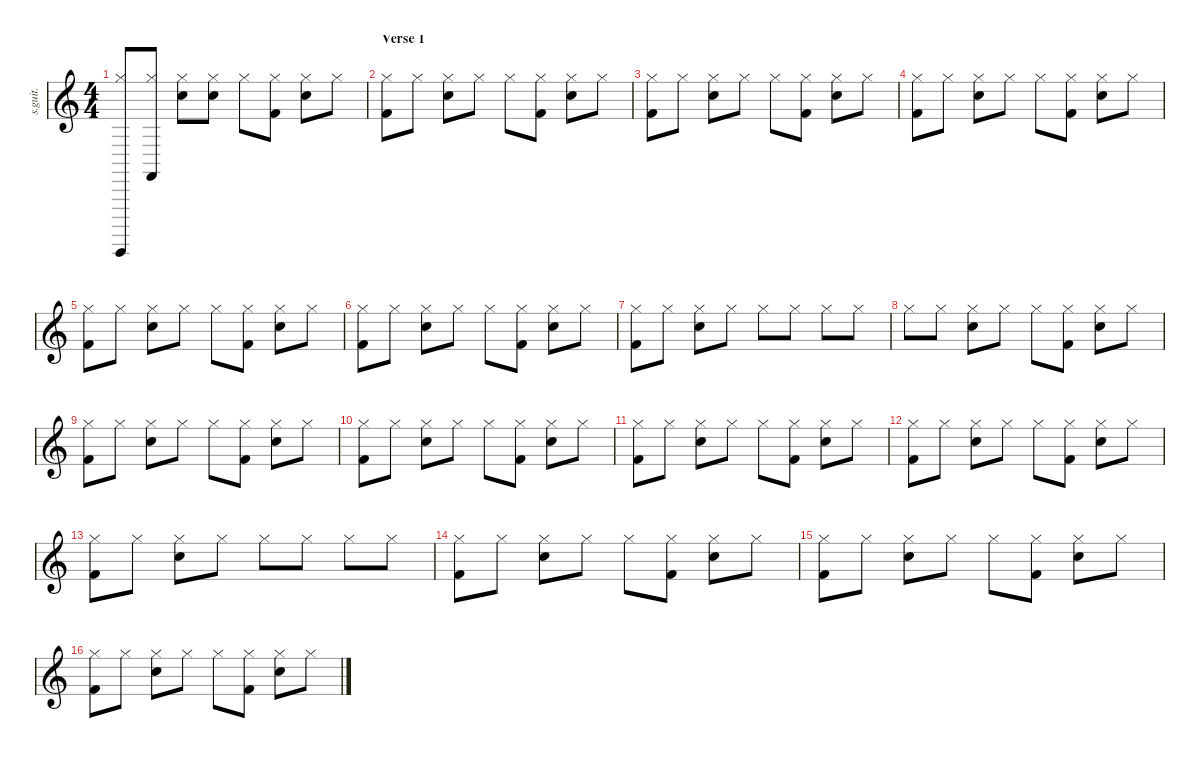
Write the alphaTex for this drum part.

\defaultSystemsLayout 4
\hideDynamics
\bracketExtendMode nobrackets
\track ("Drums (Russel Hobbs)" "s.guit.") {instrument percussion}
\staff {score}
\articulation defaults
\ts (4 4)
\tempo (139 hide)
\clef g2
\ks c
("Hi-Hat (closed)" "Guiro (hit)").8{lyrics (0 "") lyrics (1 "") lyrics (2 "") lyrics (3 "") lyrics (4 "") dy f} ("Hi-Hat (closed)" "Castanets (hit)").8{lyrics (0 "") lyrics (1 "") lyrics (2 "") lyrics (3 "") lyrics (4 "")} ("Hi-Hat (closed)" "Snare (hit) 2").8{lyrics (0 "") lyrics (1 "") lyrics (2 "") lyrics (3 "") lyrics (4 "")} ("Hi-Hat (closed)" "Snare (hit) 2").8{lyrics (0 "") lyrics (1 "") lyrics (2 "") lyrics (3 "") lyrics (4 "")} "Hi-Hat (closed)".8{lyrics (0 "") lyrics (1 "") lyrics (2 "") lyrics (3 "") lyrics (4 "")} ("Hi-Hat (closed)" "Kick (hit) 2").8{lyrics (0 "") lyrics (1 "") lyrics (2 "") lyrics (3 "") lyrics (4 "")} ("Hi-Hat (closed)" "Snare (hit) 2").8{lyrics (0 "") lyrics (1 "") lyrics (2 "") lyrics (3 "") lyrics (4 "")} "Hi-Hat (closed)".8{lyrics (0 "") lyrics (1 "") lyrics (2 "") lyrics (3 "") lyrics (4 "")} |
\section ("" "Verse 1")
("Hi-Hat (closed)" "Kick (hit) 2").8{lyrics (0 "") lyrics (1 "") lyrics (2 "") lyrics (3 "") lyrics (4 "")} "Hi-Hat (closed)".8{lyrics (0 "") lyrics (1 "") lyrics (2 "") lyrics (3 "") lyrics (4 "")} ("Hi-Hat (closed)" "Snare (hit) 2").8{lyrics (0 "") lyrics (1 "") lyrics (2 "") lyrics (3 "") lyrics (4 "")} "Hi-Hat (closed)".8{lyrics (0 "") lyrics (1 "") lyrics (2 "") lyrics (3 "") lyrics (4 "")} "Hi-Hat (closed)".8{lyrics (0 "") lyrics (1 "") lyrics (2 "") lyrics (3 "") lyrics (4 "")} ("Hi-Hat (closed)" "Kick (hit) 2").8{lyrics (0 "") lyrics (1 "") lyrics (2 "") lyrics (3 "") lyrics (4 "")} ("Hi-Hat (closed)" "Snare (hit) 2").8{lyrics (0 "") lyrics (1 "") lyrics (2 "") lyrics (3 "") lyrics (4 "")} "Hi-Hat (closed)".8{lyrics (0 "") lyrics (1 "") lyrics (2 "") lyrics (3 "") lyrics (4 "")} |
("Hi-Hat (closed)" "Kick (hit) 2").8{lyrics (0 "") lyrics (1 "") lyrics (2 "") lyrics (3 "") lyrics (4 "")} "Hi-Hat (closed)".8{lyrics (0 "") lyrics (1 "") lyrics (2 "") lyrics (3 "") lyrics (4 "")} ("Hi-Hat (closed)" "Snare (hit) 2").8{lyrics (0 "") lyrics (1 "") lyrics (2 "") lyrics (3 "") lyrics (4 "")} "Hi-Hat (closed)".8{lyrics (0 "") lyrics (1 "") lyrics (2 "") lyrics (3 "") lyrics (4 "")} "Hi-Hat (closed)".8{lyrics (0 "") lyrics (1 "") lyrics (2 "") lyrics (3 "") lyrics (4 "")} ("Hi-Hat (closed)" "Kick (hit) 2").8{lyrics (0 "") lyrics (1 "") lyrics (2 "") lyrics (3 "") lyrics (4 "")} ("Hi-Hat (closed)" "Snare (hit) 2").8{lyrics (0 "") lyrics (1 "") lyrics (2 "") lyrics (3 "") lyrics (4 "")} "Hi-Hat (closed)".8{lyrics (0 "") lyrics (1 "") lyrics (2 "") lyrics (3 "") lyrics (4 "")} |
("Hi-Hat (closed)" "Kick (hit) 2").8{lyrics (0 "") lyrics (1 "") lyrics (2 "") lyrics (3 "") lyrics (4 "")} "Hi-Hat (closed)".8{lyrics (0 "") lyrics (1 "") lyrics (2 "") lyrics (3 "") lyrics (4 "")} ("Hi-Hat (closed)" "Snare (hit) 2").8{lyrics (0 "") lyrics (1 "") lyrics (2 "") lyrics (3 "") lyrics (4 "")} "Hi-Hat (closed)".8{lyrics (0 "") lyrics (1 "") lyrics (2 "") lyrics (3 "") lyrics (4 "")} "Hi-Hat (closed)".8{lyrics (0 "") lyrics (1 "") lyrics (2 "") lyrics (3 "") lyrics (4 "")} ("Hi-Hat (closed)" "Kick (hit) 2").8{lyrics (0 "") lyrics (1 "") lyrics (2 "") lyrics (3 "") lyrics (4 "")} ("Hi-Hat (closed)" "Snare (hit) 2").8{lyrics (0 "") lyrics (1 "") lyrics (2 "") lyrics (3 "") lyrics (4 "")} "Hi-Hat (closed)".8{lyrics (0 "") lyrics (1 "") lyrics (2 "") lyrics (3 "") lyrics (4 "")} |
("Hi-Hat (closed)" "Kick (hit) 2").8{lyrics (0 "") lyrics (1 "") lyrics (2 "") lyrics (3 "") lyrics (4 "")} "Hi-Hat (closed)".8{lyrics (0 "") lyrics (1 "") lyrics (2 "") lyrics (3 "") lyrics (4 "")} ("Hi-Hat (closed)" "Snare (hit) 2").8{lyrics (0 "") lyrics (1 "") lyrics (2 "") lyrics (3 "") lyrics (4 "")} "Hi-Hat (closed)".8{lyrics (0 "") lyrics (1 "") lyrics (2 "") lyrics (3 "") lyrics (4 "")} "Hi-Hat (closed)".8{lyrics (0 "") lyrics (1 "") lyrics (2 "") lyrics (3 "") lyrics (4 "")} ("Hi-Hat (closed)" "Kick (hit) 2").8{lyrics (0 "") lyrics (1 "") lyrics (2 "") lyrics (3 "") lyrics (4 "")} ("Hi-Hat (closed)" "Snare (hit) 2").8{lyrics (0 "") lyrics (1 "") lyrics (2 "") lyrics (3 "") lyrics (4 "")} "Hi-Hat (closed)".8{lyrics (0 "") lyrics (1 "") lyrics (2 "") lyrics (3 "") lyrics (4 "")} |
("Hi-Hat (closed)" "Kick (hit) 2").8{lyrics (0 "") lyrics (1 "") lyrics (2 "") lyrics (3 "") lyrics (4 "")} "Hi-Hat (closed)".8{lyrics (0 "") lyrics (1 "") lyrics (2 "") lyrics (3 "") lyrics (4 "")} ("Hi-Hat (closed)" "Snare (hit) 2").8{lyrics (0 "") lyrics (1 "") lyrics (2 "") lyrics (3 "") lyrics (4 "")} "Hi-Hat (closed)".8{lyrics (0 "") lyrics (1 "") lyrics (2 "") lyrics (3 "") lyrics (4 "")} "Hi-Hat (closed)".8{lyrics (0 "") lyrics (1 "") lyrics (2 "") lyrics (3 "") lyrics (4 "")} ("Hi-Hat (closed)" "Kick (hit) 2").8{lyrics (0 "") lyrics (1 "") lyrics (2 "") lyrics (3 "") lyrics (4 "")} ("Hi-Hat (closed)" "Snare (hit) 2").8{lyrics (0 "") lyrics (1 "") lyrics (2 "") lyrics (3 "") lyrics (4 "")} "Hi-Hat (closed)".8{lyrics (0 "") lyrics (1 "") lyrics (2 "") lyrics (3 "") lyrics (4 "")} |
("Hi-Hat (closed)" "Kick (hit) 2").8{lyrics (0 "") lyrics (1 "") lyrics (2 "") lyrics (3 "") lyrics (4 "")} "Hi-Hat (closed)".8{lyrics (0 "") lyrics (1 "") lyrics (2 "") lyrics (3 "") lyrics (4 "")} ("Hi-Hat (closed)" "Snare (hit) 2").8{lyrics (0 "") lyrics (1 "") lyrics (2 "") lyrics (3 "") lyrics (4 "")} "Hi-Hat (closed)".8{lyrics (0 "") lyrics (1 "") lyrics (2 "") lyrics (3 "") lyrics (4 "")} "Hi-Hat (closed)".8{lyrics (0 "") lyrics (1 "") lyrics (2 "") lyrics (3 "") lyrics (4 "")} "Hi-Hat (closed)".8{lyrics (0 "") lyrics (1 "") lyrics (2 "") lyrics (3 "") lyrics (4 "")} "Hi-Hat (closed)".8{lyrics (0 "") lyrics (1 "") lyrics (2 "") lyrics (3 "") lyrics (4 "")} "Hi-Hat (closed)".8{lyrics (0 "") lyrics (1 "") lyrics (2 "") lyrics (3 "") lyrics (4 "")} |
"Hi-Hat (closed)".8{lyrics (0 "") lyrics (1 "") lyrics (2 "") lyrics (3 "") lyrics (4 "")} "Hi-Hat (closed)".8{lyrics (0 "") lyrics (1 "") lyrics (2 "") lyrics (3 "") lyrics (4 "")} ("Hi-Hat (closed)" "Snare (hit) 2").8{lyrics (0 "") lyrics (1 "") lyrics (2 "") lyrics (3 "") lyrics (4 "")} "Hi-Hat (closed)".8{lyrics (0 "") lyrics (1 "") lyrics (2 "") lyrics (3 "") lyrics (4 "")} "Hi-Hat (closed)".8{lyrics (0 "") lyrics (1 "") lyrics (2 "") lyrics (3 "") lyrics (4 "")} ("Hi-Hat (closed)" "Kick (hit) 2").8{lyrics (0 "") lyrics (1 "") lyrics (2 "") lyrics (3 "") lyrics (4 "")} ("Hi-Hat (closed)" "Snare (hit) 2").8{lyrics (0 "") lyrics (1 "") lyrics (2 "") lyrics (3 "") lyrics (4 "")} "Hi-Hat (closed)".8{lyrics (0 "") lyrics (1 "") lyrics (2 "") lyrics (3 "") lyrics (4 "")} |
("Hi-Hat (closed)" "Kick (hit) 2").8{lyrics (0 "") lyrics (1 "") lyrics (2 "") lyrics (3 "") lyrics (4 "")} "Hi-Hat (closed)".8{lyrics (0 "") lyrics (1 "") lyrics (2 "") lyrics (3 "") lyrics (4 "")} ("Hi-Hat (closed)" "Snare (hit) 2").8{lyrics (0 "") lyrics (1 "") lyrics (2 "") lyrics (3 "") lyrics (4 "")} "Hi-Hat (closed)".8{lyrics (0 "") lyrics (1 "") lyrics (2 "") lyrics (3 "") lyrics (4 "")} "Hi-Hat (closed)".8{lyrics (0 "") lyrics (1 "") lyrics (2 "") lyrics (3 "") lyrics (4 "")} ("Hi-Hat (closed)" "Kick (hit) 2").8{lyrics (0 "") lyrics (1 "") lyrics (2 "") lyrics (3 "") lyrics (4 "")} ("Hi-Hat (closed)" "Snare (hit) 2").8{lyrics (0 "") lyrics (1 "") lyrics (2 "") lyrics (3 "") lyrics (4 "")} "Hi-Hat (closed)".8{lyrics (0 "") lyrics (1 "") lyrics (2 "") lyrics (3 "") lyrics (4 "")} |
("Hi-Hat (closed)" "Kick (hit) 2").8{lyrics (0 "") lyrics (1 "") lyrics (2 "") lyrics (3 "") lyrics (4 "")} "Hi-Hat (closed)".8{lyrics (0 "") lyrics (1 "") lyrics (2 "") lyrics (3 "") lyrics (4 "")} ("Hi-Hat (closed)" "Snare (hit) 2").8{lyrics (0 "") lyrics (1 "") lyrics (2 "") lyrics (3 "") lyrics (4 "")} "Hi-Hat (closed)".8{lyrics (0 "") lyrics (1 "") lyrics (2 "") lyrics (3 "") lyrics (4 "")} "Hi-Hat (closed)".8{lyrics (0 "") lyrics (1 "") lyrics (2 "") lyrics (3 "") lyrics (4 "")} ("Hi-Hat (closed)" "Kick (hit) 2").8{lyrics (0 "") lyrics (1 "") lyrics (2 "") lyrics (3 "") lyrics (4 "")} ("Hi-Hat (closed)" "Snare (hit) 2").8{lyrics (0 "") lyrics (1 "") lyrics (2 "") lyrics (3 "") lyrics (4 "")} "Hi-Hat (closed)".8{lyrics (0 "") lyrics (1 "") lyrics (2 "") lyrics (3 "") lyrics (4 "")} |
("Hi-Hat (closed)" "Kick (hit) 2").8{lyrics (0 "") lyrics (1 "") lyrics (2 "") lyrics (3 "") lyrics (4 "")} "Hi-Hat (closed)".8{lyrics (0 "") lyrics (1 "") lyrics (2 "") lyrics (3 "") lyrics (4 "")} ("Hi-Hat (closed)" "Snare (hit) 2").8{lyrics (0 "") lyrics (1 "") lyrics (2 "") lyrics (3 "") lyrics (4 "")} "Hi-Hat (closed)".8{lyrics (0 "") lyrics (1 "") lyrics (2 "") lyrics (3 "") lyrics (4 "")} "Hi-Hat (closed)".8{lyrics (0 "") lyrics (1 "") lyrics (2 "") lyrics (3 "") lyrics (4 "")} ("Hi-Hat (closed)" "Kick (hit) 2").8{lyrics (0 "") lyrics (1 "") lyrics (2 "") lyrics (3 "") lyrics (4 "")} ("Hi-Hat (closed)" "Snare (hit) 2").8{lyrics (0 "") lyrics (1 "") lyrics (2 "") lyrics (3 "") lyrics (4 "")} "Hi-Hat (closed)".8{lyrics (0 "") lyrics (1 "") lyrics (2 "") lyrics (3 "") lyrics (4 "")} |
("Hi-Hat (closed)" "Kick (hit) 2").8{lyrics (0 "") lyrics (1 "") lyrics (2 "") lyrics (3 "") lyrics (4 "")} "Hi-Hat (closed)".8{lyrics (0 "") lyrics (1 "") lyrics (2 "") lyrics (3 "") lyrics (4 "")} ("Hi-Hat (closed)" "Snare (hit) 2").8{lyrics (0 "") lyrics (1 "") lyrics (2 "") lyrics (3 "") lyrics (4 "")} "Hi-Hat (closed)".8{lyrics (0 "") lyrics (1 "") lyrics (2 "") lyrics (3 "") lyrics (4 "")} "Hi-Hat (closed)".8{lyrics (0 "") lyrics (1 "") lyrics (2 "") lyrics (3 "") lyrics (4 "")} ("Hi-Hat (closed)" "Kick (hit) 2").8{lyrics (0 "") lyrics (1 "") lyrics (2 "") lyrics (3 "") lyrics (4 "")} ("Hi-Hat (closed)" "Snare (hit) 2").8{lyrics (0 "") lyrics (1 "") lyrics (2 "") lyrics (3 "") lyrics (4 "")} "Hi-Hat (closed)".8{lyrics (0 "") lyrics (1 "") lyrics (2 "") lyrics (3 "") lyrics (4 "")} |
("Hi-Hat (closed)" "Kick (hit) 2").8{lyrics (0 "") lyrics (1 "") lyrics (2 "") lyrics (3 "") lyrics (4 "")} "Hi-Hat (closed)".8{lyrics (0 "") lyrics (1 "") lyrics (2 "") lyrics (3 "") lyrics (4 "")} ("Hi-Hat (closed)" "Snare (hit) 2").8{lyrics (0 "") lyrics (1 "") lyrics (2 "") lyrics (3 "") lyrics (4 "")} "Hi-Hat (closed)".8{lyrics (0 "") lyrics (1 "") lyrics (2 "") lyrics (3 "") lyrics (4 "")} "Hi-Hat (closed)".8{lyrics (0 "") lyrics (1 "") lyrics (2 "") lyrics (3 "") lyrics (4 "")} "Hi-Hat (closed)".8{lyrics (0 "") lyrics (1 "") lyrics (2 "") lyrics (3 "") lyrics (4 "")} "Hi-Hat (closed)".8{lyrics (0 "") lyrics (1 "") lyrics (2 "") lyrics (3 "") lyrics (4 "")} "Hi-Hat (closed)".8{lyrics (0 "") lyrics (1 "") lyrics (2 "") lyrics (3 "") lyrics (4 "")} |
("Hi-Hat (closed)" "Kick (hit) 2").8{lyrics (0 "") lyrics (1 "") lyrics (2 "") lyrics (3 "") lyrics (4 "")} "Hi-Hat (closed)".8{lyrics (0 "") lyrics (1 "") lyrics (2 "") lyrics (3 "") lyrics (4 "")} ("Hi-Hat (closed)" "Snare (hit) 2").8{lyrics (0 "") lyrics (1 "") lyrics (2 "") lyrics (3 "") lyrics (4 "")} "Hi-Hat (closed)".8{lyrics (0 "") lyrics (1 "") lyrics (2 "") lyrics (3 "") lyrics (4 "")} "Hi-Hat (closed)".8{lyrics (0 "") lyrics (1 "") lyrics (2 "") lyrics (3 "") lyrics (4 "")} ("Hi-Hat (closed)" "Kick (hit) 2").8{lyrics (0 "") lyrics (1 "") lyrics (2 "") lyrics (3 "") lyrics (4 "")} ("Hi-Hat (closed)" "Snare (hit) 2").8{lyrics (0 "") lyrics (1 "") lyrics (2 "") lyrics (3 "") lyrics (4 "")} "Hi-Hat (closed)".8{lyrics (0 "") lyrics (1 "") lyrics (2 "") lyrics (3 "") lyrics (4 "")} |
("Hi-Hat (closed)" "Kick (hit) 2").8{lyrics (0 "") lyrics (1 "") lyrics (2 "") lyrics (3 "") lyrics (4 "")} "Hi-Hat (closed)".8{lyrics (0 "") lyrics (1 "") lyrics (2 "") lyrics (3 "") lyrics (4 "")} ("Hi-Hat (closed)" "Snare (hit) 2").8{lyrics (0 "") lyrics (1 "") lyrics (2 "") lyrics (3 "") lyrics (4 "")} "Hi-Hat (closed)".8{lyrics (0 "") lyrics (1 "") lyrics (2 "") lyrics (3 "") lyrics (4 "")} "Hi-Hat (closed)".8{lyrics (0 "") lyrics (1 "") lyrics (2 "") lyrics (3 "") lyrics (4 "")} ("Hi-Hat (closed)" "Kick (hit) 2").8{lyrics (0 "") lyrics (1 "") lyrics (2 "") lyrics (3 "") lyrics (4 "")} ("Hi-Hat (closed)" "Snare (hit) 2").8{lyrics (0 "") lyrics (1 "") lyrics (2 "") lyrics (3 "") lyrics (4 "")} "Hi-Hat (closed)".8{lyrics (0 "") lyrics (1 "") lyrics (2 "") lyrics (3 "") lyrics (4 "")} |
("Hi-Hat (closed)" "Kick (hit) 2").8{lyrics (0 "") lyrics (1 "") lyrics (2 "") lyrics (3 "") lyrics (4 "")} "Hi-Hat (closed)".8{lyrics (0 "") lyrics (1 "") lyrics (2 "") lyrics (3 "") lyrics (4 "")} ("Hi-Hat (closed)" "Snare (hit) 2").8{lyrics (0 "") lyrics (1 "") lyrics (2 "") lyrics (3 "") lyrics (4 "")} "Hi-Hat (closed)".8{lyrics (0 "") lyrics (1 "") lyrics (2 "") lyrics (3 "") lyrics (4 "")} "Hi-Hat (closed)".8{lyrics (0 "") lyrics (1 "") lyrics (2 "") lyrics (3 "") lyrics (4 "")} ("Hi-Hat (closed)" "Kick (hit) 2").8{lyrics (0 "") lyrics (1 "") lyrics (2 "") lyrics (3 "") lyrics (4 "")} ("Hi-Hat (closed)" "Snare (hit) 2").8{lyrics (0 "") lyrics (1 "") lyrics (2 "") lyrics (3 "") lyrics (4 "")} "Hi-Hat (closed)".8{lyrics (0 "") lyrics (1 "") lyrics (2 "") lyrics (3 "") lyrics (4 "")}
